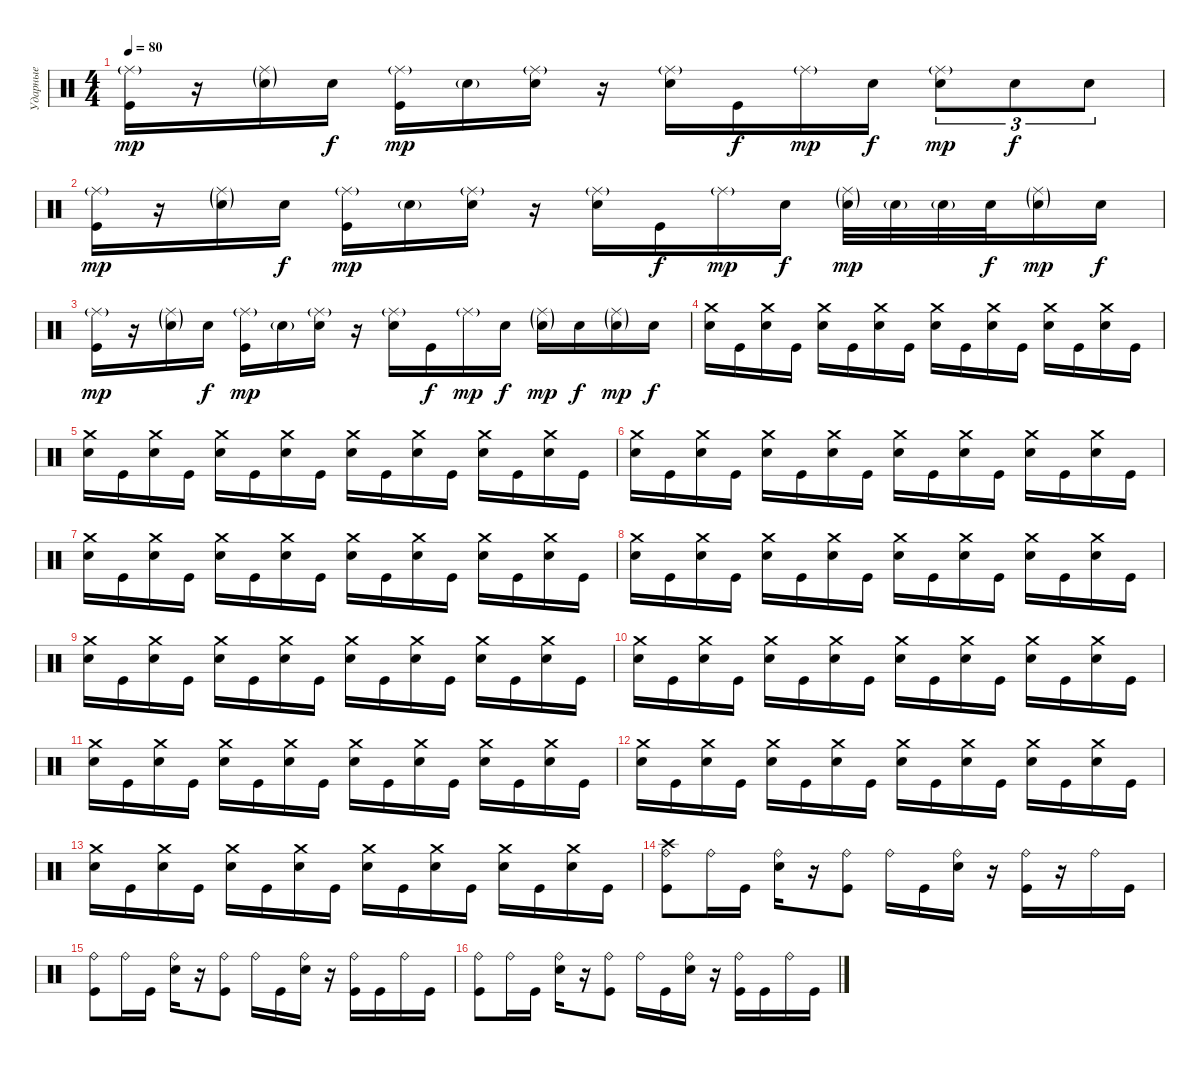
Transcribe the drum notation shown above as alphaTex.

\track ("Ударные" "Ударные") {instrument percussion}
\staff {score}
\articulation defaults
\ts (4 4)
\tempo 80
\clef neutral
\ks c
("Ride (middle)"{g} "Kick (hit)").16{dy mp} r.16 ("Ride (middle)"{g} "Electric Snare (hit)"{g}).16 "Electric Snare (hit)".16{dy f} ("Ride (middle)"{g} "Kick (hit)").16{dy mp} "Electric Snare (hit)"{g}.16 ("Ride (middle)"{g} "Electric Snare (hit)").16 r.16 ("Ride (middle)"{g} "Electric Snare (hit)").16 "Kick (hit)".16{dy f} "Ride (middle)"{g}.16{dy mp} "Electric Snare (hit)".16{dy f} ("Ride (middle)"{g} "Electric Snare (hit)").8{tu (3 2) dy mp} "Electric Snare (hit)".8{tu (3 2) dy f} "Electric Snare (hit)".8{tu (3 2)} |
("Ride (middle)"{g} "Kick (hit)").16{dy mp} r.16 ("Ride (middle)"{g} "Electric Snare (hit)"{g}).16 "Electric Snare (hit)".16{dy f} ("Ride (middle)"{g} "Kick (hit)").16{dy mp} "Electric Snare (hit)"{g}.16 ("Ride (middle)"{g} "Electric Snare (hit)").16 r.16 ("Ride (middle)"{g} "Electric Snare (hit)").16 "Kick (hit)".16{dy f} "Ride (middle)"{g}.16{dy mp} "Electric Snare (hit)".16{dy f} ("Ride (middle)"{g} "Electric Snare (hit)"{g}).32{dy mp} "Electric Snare (hit)"{g}.32 "Electric Snare (hit)"{g}.32 "Electric Snare (hit)".32{dy f} ("Ride (middle)"{g} "Electric Snare (hit)"{g}).16{dy mp} "Electric Snare (hit)".16{dy f} |
("Ride (middle)"{g} "Kick (hit)").16{dy mp} r.16 ("Ride (middle)"{g} "Electric Snare (hit)"{g}).16 "Electric Snare (hit)".16{dy f} ("Ride (middle)"{g} "Kick (hit)").16{dy mp} "Electric Snare (hit)"{g}.16 ("Ride (middle)"{g} "Electric Snare (hit)").16 r.16 ("Ride (middle)"{g} "Electric Snare (hit)").16 "Kick (hit)".16{dy f} "Ride (middle)"{g}.16{dy mp} "Electric Snare (hit)".16{dy f} ("Ride (middle)"{g} "Electric Snare (hit)"{g}).16{dy mp} "Electric Snare (hit)".16{dy f} ("Ride (middle)"{g} "Electric Snare (hit)"{g}).16{dy mp} "Electric Snare (hit)".16{dy f} |
("Crash medium (hit)" "Electric Snare (hit)").16 "Kick (hit)".16 ("Crash medium (hit)" "Electric Snare (hit)").16 "Kick (hit)".16 ("Crash medium (hit)" "Electric Snare (hit)").16 "Kick (hit)".16 ("Crash medium (hit)" "Electric Snare (hit)").16 "Kick (hit)".16 ("Crash medium (hit)" "Electric Snare (hit)").16 "Kick (hit)".16 ("Crash medium (hit)" "Electric Snare (hit)").16 "Kick (hit)".16 ("Crash medium (hit)" "Electric Snare (hit)").16 "Kick (hit)".16 ("Crash medium (hit)" "Electric Snare (hit)").16 "Kick (hit)".16 |
("Crash medium (hit)" "Electric Snare (hit)").16 "Kick (hit)".16 ("Crash medium (hit)" "Electric Snare (hit)").16 "Kick (hit)".16 ("Crash medium (hit)" "Electric Snare (hit)").16 "Kick (hit)".16 ("Crash medium (hit)" "Electric Snare (hit)").16 "Kick (hit)".16 ("Crash medium (hit)" "Electric Snare (hit)").16 "Kick (hit)".16 ("Crash medium (hit)" "Electric Snare (hit)").16 "Kick (hit)".16 ("Crash medium (hit)" "Electric Snare (hit)").16 "Kick (hit)".16 ("Crash medium (hit)" "Electric Snare (hit)").16 "Kick (hit)".16 |
("Crash medium (hit)" "Electric Snare (hit)").16 "Kick (hit)".16 ("Crash medium (hit)" "Electric Snare (hit)").16 "Kick (hit)".16 ("Crash medium (hit)" "Electric Snare (hit)").16 "Kick (hit)".16 ("Crash medium (hit)" "Electric Snare (hit)").16 "Kick (hit)".16 ("Crash medium (hit)" "Electric Snare (hit)").16 "Kick (hit)".16 ("Crash medium (hit)" "Electric Snare (hit)").16 "Kick (hit)".16 ("Crash medium (hit)" "Electric Snare (hit)").16 "Kick (hit)".16 ("Crash medium (hit)" "Electric Snare (hit)").16 "Kick (hit)".16 |
("Crash medium (hit)" "Electric Snare (hit)").16 "Kick (hit)".16 ("Crash medium (hit)" "Electric Snare (hit)").16 "Kick (hit)".16 ("Crash medium (hit)" "Electric Snare (hit)").16 "Kick (hit)".16 ("Crash medium (hit)" "Electric Snare (hit)").16 "Kick (hit)".16 ("Crash medium (hit)" "Electric Snare (hit)").16 "Kick (hit)".16 ("Crash medium (hit)" "Electric Snare (hit)").16 "Kick (hit)".16 ("Crash medium (hit)" "Electric Snare (hit)").16 "Kick (hit)".16 ("Crash medium (hit)" "Electric Snare (hit)").16 "Kick (hit)".16 |
("Crash medium (hit)" "Electric Snare (hit)").16 "Kick (hit)".16 ("Crash medium (hit)" "Electric Snare (hit)").16 "Kick (hit)".16 ("Crash medium (hit)" "Electric Snare (hit)").16 "Kick (hit)".16 ("Crash medium (hit)" "Electric Snare (hit)").16 "Kick (hit)".16 ("Crash medium (hit)" "Electric Snare (hit)").16 "Kick (hit)".16 ("Crash medium (hit)" "Electric Snare (hit)").16 "Kick (hit)".16 ("Crash medium (hit)" "Electric Snare (hit)").16 "Kick (hit)".16 ("Crash medium (hit)" "Electric Snare (hit)").16 "Kick (hit)".16 |
("Crash medium (hit)" "Electric Snare (hit)").16 "Kick (hit)".16 ("Crash medium (hit)" "Electric Snare (hit)").16 "Kick (hit)".16 ("Crash medium (hit)" "Electric Snare (hit)").16 "Kick (hit)".16 ("Crash medium (hit)" "Electric Snare (hit)").16 "Kick (hit)".16 ("Crash medium (hit)" "Electric Snare (hit)").16 "Kick (hit)".16 ("Crash medium (hit)" "Electric Snare (hit)").16 "Kick (hit)".16 ("Crash medium (hit)" "Electric Snare (hit)").16 "Kick (hit)".16 ("Crash medium (hit)" "Electric Snare (hit)").16 "Kick (hit)".16 |
("Crash medium (hit)" "Electric Snare (hit)").16 "Kick (hit)".16 ("Crash medium (hit)" "Electric Snare (hit)").16 "Kick (hit)".16 ("Crash medium (hit)" "Electric Snare (hit)").16 "Kick (hit)".16 ("Crash medium (hit)" "Electric Snare (hit)").16 "Kick (hit)".16 ("Crash medium (hit)" "Electric Snare (hit)").16 "Kick (hit)".16 ("Crash medium (hit)" "Electric Snare (hit)").16 "Kick (hit)".16 ("Crash medium (hit)" "Electric Snare (hit)").16 "Kick (hit)".16 ("Crash medium (hit)" "Electric Snare (hit)").16 "Kick (hit)".16 |
("Crash medium (hit)" "Electric Snare (hit)").16 "Kick (hit)".16 ("Crash medium (hit)" "Electric Snare (hit)").16 "Kick (hit)".16 ("Crash medium (hit)" "Electric Snare (hit)").16 "Kick (hit)".16 ("Crash medium (hit)" "Electric Snare (hit)").16 "Kick (hit)".16 ("Crash medium (hit)" "Electric Snare (hit)").16 "Kick (hit)".16 ("Crash medium (hit)" "Electric Snare (hit)").16 "Kick (hit)".16 ("Crash medium (hit)" "Electric Snare (hit)").16 "Kick (hit)".16 ("Crash medium (hit)" "Electric Snare (hit)").16 "Kick (hit)".16 |
("Crash medium (hit)" "Electric Snare (hit)").16 "Kick (hit)".16 ("Crash medium (hit)" "Electric Snare (hit)").16 "Kick (hit)".16 ("Crash medium (hit)" "Electric Snare (hit)").16 "Kick (hit)".16 ("Crash medium (hit)" "Electric Snare (hit)").16 "Kick (hit)".16 ("Crash medium (hit)" "Electric Snare (hit)").16 "Kick (hit)".16 ("Crash medium (hit)" "Electric Snare (hit)").16 "Kick (hit)".16 ("Crash medium (hit)" "Electric Snare (hit)").16 "Kick (hit)".16 ("Crash medium (hit)" "Electric Snare (hit)").16 "Kick (hit)".16 |
("Crash medium (hit)" "Electric Snare (hit)").16 "Kick (hit)".16 ("Crash medium (hit)" "Electric Snare (hit)").16 "Kick (hit)".16 ("Crash medium (hit)" "Electric Snare (hit)").16 "Kick (hit)".16 ("Crash medium (hit)" "Electric Snare (hit)").16 "Kick (hit)".16 ("Crash medium (hit)" "Electric Snare (hit)").16 "Kick (hit)".16 ("Crash medium (hit)" "Electric Snare (hit)").16 "Kick (hit)".16 ("Crash medium (hit)" "Electric Snare (hit)").16 "Kick (hit)".16 ("Crash medium (hit)" "Electric Snare (hit)").16 "Kick (hit)".16 |
("Crash high (hit)" "Ride (bell)" "Kick (hit)").8 "Ride (bell)".16 "Kick (hit)".16 ("Electric Snare (hit)" "Ride (bell)").16 r.16 ("Ride (bell)" "Kick (hit)").8 "Ride (bell)".16 "Kick (hit)".16 ("Electric Snare (hit)" "Ride (bell)").16 r.16 ("Ride (bell)" "Kick (hit)").16 r.16 "Ride (bell)".16 "Kick (hit)".16 |
("Ride (bell)" "Kick (hit)").8 "Ride (bell)".16 "Kick (hit)".16 ("Electric Snare (hit)" "Ride (bell)").16 r.16 ("Ride (bell)" "Kick (hit)").8 "Ride (bell)".16 "Kick (hit)".16 ("Electric Snare (hit)" "Ride (bell)").16 r.16 ("Ride (bell)" "Kick (hit)").16 "Kick (hit)".16 "Ride (bell)".16 "Kick (hit)".16 |
("Ride (bell)" "Kick (hit)").8 "Ride (bell)".16 "Kick (hit)".16 ("Electric Snare (hit)" "Ride (bell)").16 r.16 ("Ride (bell)" "Kick (hit)").8 "Ride (bell)".16 "Kick (hit)".16 ("Electric Snare (hit)" "Ride (bell)").16 r.16 ("Ride (bell)" "Kick (hit)").16 "Kick (hit)".16 "Ride (bell)".16 "Kick (hit)".16
